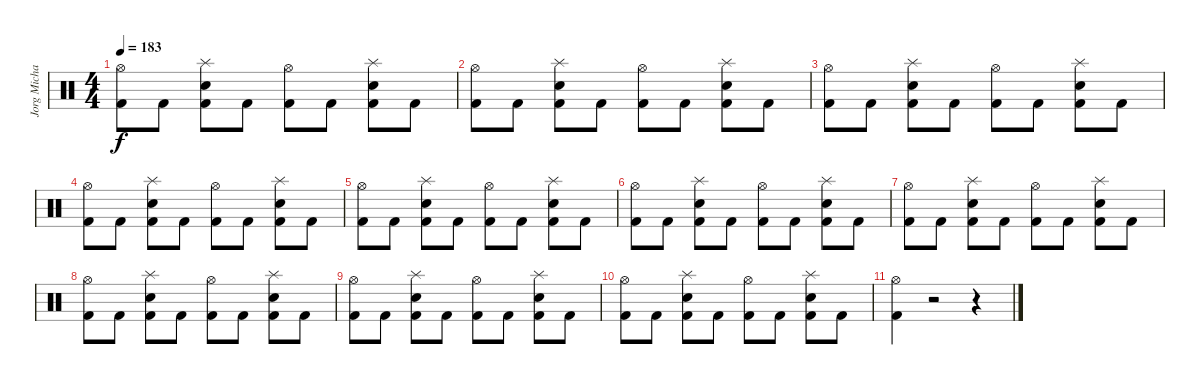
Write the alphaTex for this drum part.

\track ("Jorg Michael" "Jorg Micha") {instrument percussion}
\staff {score}
\articulation defaults
\ts (4 4)
\tempo 183
\clef neutral
\ks c
("Kick (hit) 2" "Hi-Hat (open)").8{dy f} "Kick (hit) 2".8 ("Snare (hit) 2" "Kick (hit) 2" "Splash (hit)").8 "Kick (hit) 2".8 ("Kick (hit) 2" "Hi-Hat (open)").8 "Kick (hit) 2".8 ("Snare (hit) 2" "Kick (hit) 2" "Splash (hit)").8 "Kick (hit) 2".8 |
("Hi-Hat (open)" "Kick (hit) 2").8 "Kick (hit) 2".8{volume 16} ("Snare (hit) 2" "Kick (hit) 2" "Splash (hit)").8{volume 16} "Kick (hit) 2".8{volume 15} ("Kick (hit) 2" "Hi-Hat (open)").8{volume 15} "Kick (hit) 2".8{volume 15} ("Snare (hit) 2" "Kick (hit) 2" "Splash (hit)").8{volume 15} "Kick (hit) 2".8{volume 14} |
("Kick (hit) 2" "Hi-Hat (open)").8{volume 14} "Kick (hit) 2".8{volume 14} ("Snare (hit) 2" "Kick (hit) 2" "Splash (hit)").8{volume 14} "Kick (hit) 2".8{volume 14} ("Kick (hit) 2" "Hi-Hat (open)").8{volume 13} "Kick (hit) 2".8{volume 13} ("Snare (hit) 2" "Kick (hit) 2" "Splash (hit)").8{volume 13} "Kick (hit) 2".8{volume 13} |
("Hi-Hat (open)" "Kick (hit) 2").8{volume 12} "Kick (hit) 2".8{volume 12} ("Snare (hit) 2" "Kick (hit) 2" "Splash (hit)").8{volume 12} "Kick (hit) 2".8{volume 12} ("Kick (hit) 2" "Hi-Hat (open)").8{volume 12} "Kick (hit) 2".8{volume 11} ("Snare (hit) 2" "Kick (hit) 2" "Splash (hit)").8{volume 11} "Kick (hit) 2".8{volume 11} |
("Kick (hit) 2" "Hi-Hat (open)").8{volume 11} "Kick (hit) 2".8{volume 10} ("Snare (hit) 2" "Kick (hit) 2" "Splash (hit)").8{volume 10} "Kick (hit) 2".8{volume 10} ("Kick (hit) 2" "Hi-Hat (open)").8{volume 10} "Kick (hit) 2".8{volume 10} ("Snare (hit) 2" "Kick (hit) 2" "Splash (hit)").8{volume 9} "Kick (hit) 2".8{volume 9} |
("Hi-Hat (open)" "Kick (hit) 2").8{volume 9} "Kick (hit) 2".8{volume 9} ("Snare (hit) 2" "Kick (hit) 2" "Splash (hit)").8{volume 8} "Kick (hit) 2".8{volume 8} ("Kick (hit) 2" "Hi-Hat (open)").8{volume 8} "Kick (hit) 2".8{volume 8} ("Snare (hit) 2" "Kick (hit) 2" "Splash (hit)").8{volume 8} "Kick (hit) 2".8{volume 7} |
("Kick (hit) 2" "Hi-Hat (open)").8{volume 7} "Kick (hit) 2".8{volume 7} ("Snare (hit) 2" "Kick (hit) 2" "Splash (hit)").8{volume 7} "Kick (hit) 2".8{volume 6} ("Kick (hit) 2" "Hi-Hat (open)").8{volume 6} "Kick (hit) 2".8{volume 6} ("Snare (hit) 2" "Kick (hit) 2" "Splash (hit)").8{volume 6} "Kick (hit) 2".8{volume 6} |
("Hi-Hat (open)" "Kick (hit) 2").8{volume 5} "Kick (hit) 2".8{volume 5} ("Snare (hit) 2" "Kick (hit) 2" "Splash (hit)").8{volume 5} "Kick (hit) 2".8{volume 5} ("Kick (hit) 2" "Hi-Hat (open)").8{volume 4} "Kick (hit) 2".8{volume 4} ("Snare (hit) 2" "Kick (hit) 2" "Splash (hit)").8{volume 4} "Kick (hit) 2".8{volume 4} |
("Kick (hit) 2" "Hi-Hat (open)").8{volume 4} "Kick (hit) 2".8{volume 3} ("Snare (hit) 2" "Kick (hit) 2" "Splash (hit)").8{volume 3} "Kick (hit) 2".8{volume 3} ("Kick (hit) 2" "Hi-Hat (open)").8{volume 3} "Kick (hit) 2".8{volume 2} ("Snare (hit) 2" "Kick (hit) 2" "Splash (hit)").8{volume 2} "Kick (hit) 2".8{volume 2} |
("Hi-Hat (open)" "Kick (hit) 2").8{volume 2} "Kick (hit) 2".8{volume 2} ("Snare (hit) 2" "Kick (hit) 2" "Splash (hit)").8{volume 1} "Kick (hit) 2".8{volume 1} ("Kick (hit) 2" "Hi-Hat (open)").8{volume 1} "Kick (hit) 2".8{volume 1} ("Snare (hit) 2" "Kick (hit) 2" "Splash (hit)").8{volume 0} "Kick (hit) 2".8{volume 0} |
("Kick (hit) 2" "Hi-Hat (open)").4{volume 0} r.2 r.4
